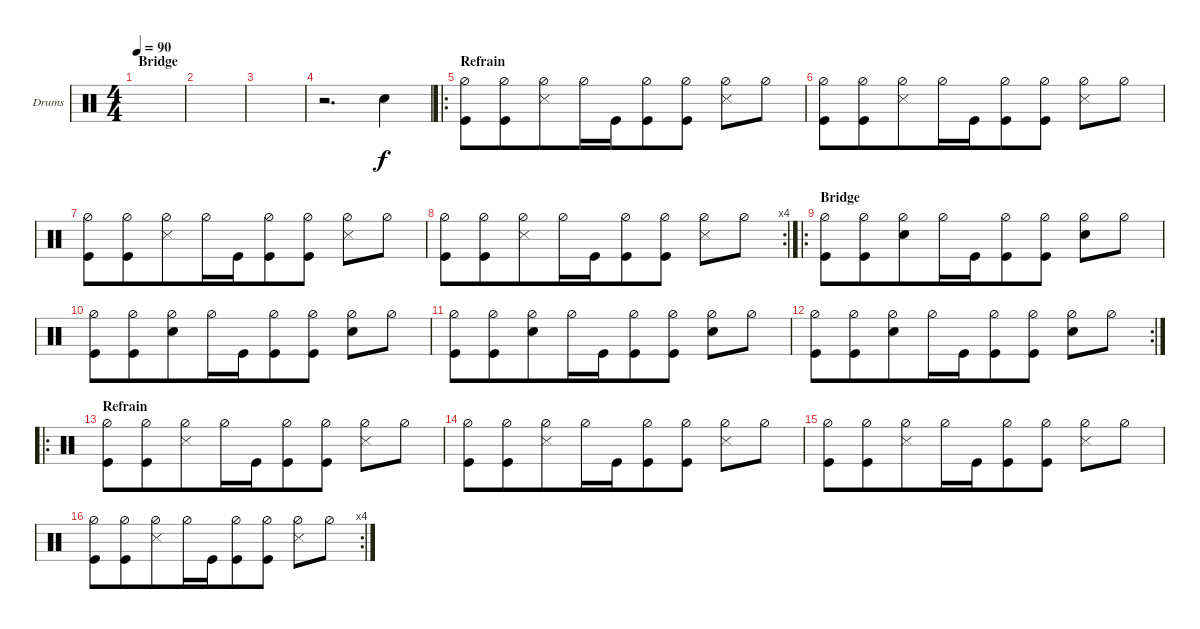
\defaultSystemsLayout 4
\bracketExtendMode groupsimilarinstruments
\firstSystemTrackNameOrientation horizontal
\otherSystemsTrackNameOrientation horizontal
\track ("Drumkit" "Drums") {instrument percussion}
\staff {score}
\articulation defaults
\ts (4 4)
\section ("" "Bridge")
\tempo 90
\clef neutral
\ks c
|
|
|
r.2{d} "Snare (hit) 2".4 |
\ro
\beaming (8 6 2)
\section ("" "Refrain")
("Hi-Hat (half)" "Kick (hit)").8 ("Hi-Hat (half)" "Kick (hit)").8 ("Hi-Hat (half)" "Snare (side stick) 3").8 "Hi-Hat (half)".16 "Kick (hit)".16 ("Kick (hit)" "Hi-Hat (half)").8 ("Hi-Hat (half)" "Kick (hit)").8 ("Hi-Hat (half)" "Snare (side stick) 3").8 "Hi-Hat (half)".8 |
("Hi-Hat (half)" "Kick (hit)").8 ("Hi-Hat (half)" "Kick (hit)").8 ("Hi-Hat (half)" "Snare (side stick) 3").8 "Hi-Hat (half)".16 "Kick (hit)".16 ("Kick (hit)" "Hi-Hat (half)").8 ("Hi-Hat (half)" "Kick (hit)").8 ("Hi-Hat (half)" "Snare (side stick) 3").8 "Hi-Hat (half)".8 |
("Hi-Hat (half)" "Kick (hit)").8 ("Hi-Hat (half)" "Kick (hit)").8 ("Hi-Hat (half)" "Snare (side stick) 3").8 "Hi-Hat (half)".16 "Kick (hit)".16 ("Kick (hit)" "Hi-Hat (half)").8 ("Hi-Hat (half)" "Kick (hit)").8 ("Hi-Hat (half)" "Snare (side stick) 3").8 "Hi-Hat (half)".8 |
\rc 4
("Hi-Hat (half)" "Kick (hit)").8 ("Hi-Hat (half)" "Kick (hit)").8 ("Hi-Hat (half)" "Snare (side stick) 3").8 "Hi-Hat (half)".16 "Kick (hit)".16 ("Kick (hit)" "Hi-Hat (half)").8 ("Hi-Hat (half)" "Kick (hit)").8 ("Hi-Hat (half)" "Snare (side stick) 3").8 "Hi-Hat (half)".8 |
\ro
\section ("" "Bridge")
("Hi-Hat (half)" "Kick (hit)").8 ("Hi-Hat (half)" "Kick (hit)").8 ("Hi-Hat (half)" "Snare (hit) 2").8 "Hi-Hat (half)".16 "Kick (hit)".16 ("Kick (hit)" "Hi-Hat (half)").8 ("Hi-Hat (half)" "Kick (hit)").8 ("Hi-Hat (half)" "Snare (hit) 2").8 "Hi-Hat (half)".8 |
("Hi-Hat (half)" "Kick (hit)").8 ("Hi-Hat (half)" "Kick (hit)").8 ("Hi-Hat (half)" "Snare (hit) 2").8 "Hi-Hat (half)".16 "Kick (hit)".16 ("Kick (hit)" "Hi-Hat (half)").8 ("Hi-Hat (half)" "Kick (hit)").8 ("Hi-Hat (half)" "Snare (hit) 2").8 "Hi-Hat (half)".8 |
("Hi-Hat (half)" "Kick (hit)").8 ("Hi-Hat (half)" "Kick (hit)").8 ("Hi-Hat (half)" "Snare (hit) 2").8 "Hi-Hat (half)".16 "Kick (hit)".16 ("Kick (hit)" "Hi-Hat (half)").8 ("Hi-Hat (half)" "Kick (hit)").8 ("Hi-Hat (half)" "Snare (hit) 2").8 "Hi-Hat (half)".8 |
\rc 2
("Hi-Hat (half)" "Kick (hit)").8 ("Hi-Hat (half)" "Kick (hit)").8 ("Hi-Hat (half)" "Snare (hit) 2").8 "Hi-Hat (half)".16 "Kick (hit)".16 ("Kick (hit)" "Hi-Hat (half)").8 ("Hi-Hat (half)" "Kick (hit)").8 ("Hi-Hat (half)" "Snare (hit) 2").8 "Hi-Hat (half)".8 |
\ro
\section ("" "Refrain")
("Hi-Hat (half)" "Kick (hit)").8 ("Hi-Hat (half)" "Kick (hit)").8 ("Hi-Hat (half)" "Snare (side stick) 3").8 "Hi-Hat (half)".16 "Kick (hit)".16 ("Kick (hit)" "Hi-Hat (half)").8 ("Hi-Hat (half)" "Kick (hit)").8 ("Hi-Hat (half)" "Snare (side stick) 3").8 "Hi-Hat (half)".8 |
("Hi-Hat (half)" "Kick (hit)").8 ("Hi-Hat (half)" "Kick (hit)").8 ("Hi-Hat (half)" "Snare (side stick) 3").8 "Hi-Hat (half)".16 "Kick (hit)".16 ("Kick (hit)" "Hi-Hat (half)").8 ("Hi-Hat (half)" "Kick (hit)").8 ("Hi-Hat (half)" "Snare (side stick) 3").8 "Hi-Hat (half)".8 |
("Hi-Hat (half)" "Kick (hit)").8 ("Hi-Hat (half)" "Kick (hit)").8 ("Hi-Hat (half)" "Snare (side stick) 3").8 "Hi-Hat (half)".16 "Kick (hit)".16 ("Kick (hit)" "Hi-Hat (half)").8 ("Hi-Hat (half)" "Kick (hit)").8 ("Hi-Hat (half)" "Snare (side stick) 3").8 "Hi-Hat (half)".8 |
\rc 4
("Hi-Hat (half)" "Kick (hit)").8 ("Hi-Hat (half)" "Kick (hit)").8 ("Hi-Hat (half)" "Snare (side stick) 3").8 "Hi-Hat (half)".16 "Kick (hit)".16 ("Kick (hit)" "Hi-Hat (half)").8 ("Hi-Hat (half)" "Kick (hit)").8 ("Hi-Hat (half)" "Snare (side stick) 3").8 "Hi-Hat (half)".8
